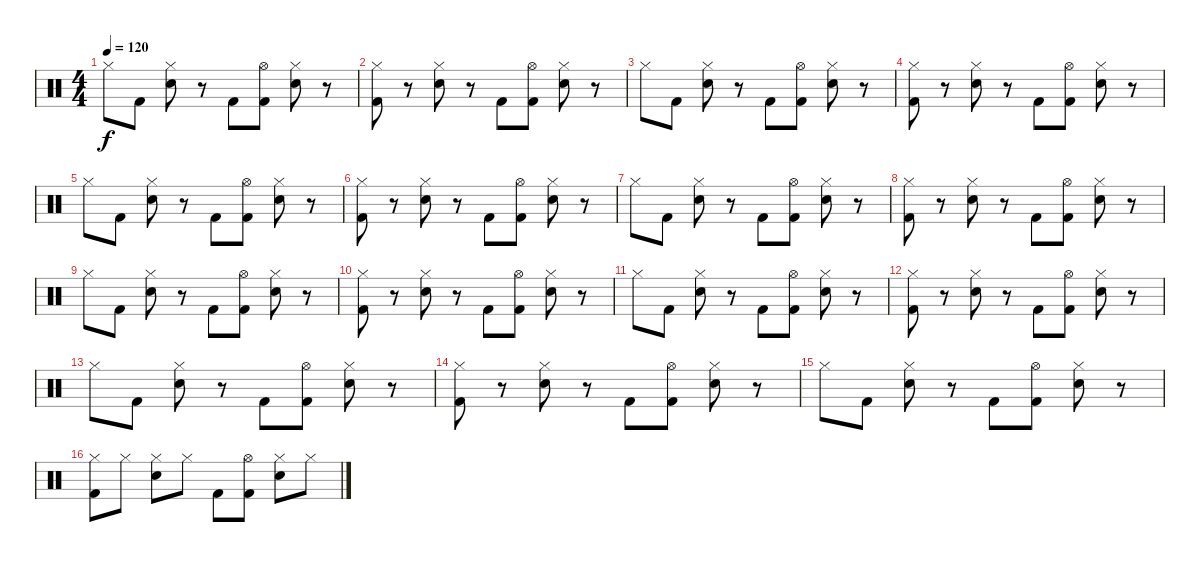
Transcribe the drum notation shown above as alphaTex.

\track "" {instrument percussion}
\staff {score}
\articulation defaults
\ts (4 4)
\tempo 120
\clef neutral
\ks c "Hi-Hat (closed)".8{dy f} "Kick (hit) 2".8
("Hi-Hat (closed)" "Snare (hit) 2").8 r.8 "Kick (hit) 2".8 ("Hi-Hat (open)" "Kick (hit) 2").8 ("Hi-Hat (closed)" "Snare (hit) 2").8 r.8 |
("Hi-Hat (closed)" "Kick (hit) 2").8 r.8 ("Hi-Hat (closed)" "Snare (hit) 2").8 r.8 "Kick (hit) 2".8 ("Hi-Hat (open)" "Kick (hit) 2").8 ("Hi-Hat (closed)" "Snare (hit) 2").8 r.8 |
"Hi-Hat (closed)".8 "Kick (hit) 2".8 ("Hi-Hat (closed)" "Snare (hit) 2").8 r.8 "Kick (hit) 2".8 ("Hi-Hat (open)" "Kick (hit) 2").8 ("Hi-Hat (closed)" "Snare (hit) 2").8 r.8 |
("Hi-Hat (closed)" "Kick (hit) 2").8 r.8 ("Hi-Hat (closed)" "Snare (hit) 2").8 r.8 "Kick (hit) 2".8 ("Hi-Hat (open)" "Kick (hit) 2").8 ("Hi-Hat (closed)" "Snare (hit) 2").8 r.8 |
"Hi-Hat (closed)".8 "Kick (hit) 2".8 ("Hi-Hat (closed)" "Snare (hit) 2").8 r.8 "Kick (hit) 2".8 ("Hi-Hat (open)" "Kick (hit) 2").8 ("Hi-Hat (closed)" "Snare (hit) 2").8 r.8 |
("Hi-Hat (closed)" "Kick (hit) 2").8 r.8 ("Hi-Hat (closed)" "Snare (hit) 2").8 r.8 "Kick (hit) 2".8 ("Hi-Hat (open)" "Kick (hit) 2").8 ("Hi-Hat (closed)" "Snare (hit) 2").8 r.8 |
"Hi-Hat (closed)".8 "Kick (hit) 2".8 ("Hi-Hat (closed)" "Snare (hit) 2").8 r.8 "Kick (hit) 2".8 ("Hi-Hat (open)" "Kick (hit) 2").8 ("Hi-Hat (closed)" "Snare (hit) 2").8 r.8 |
("Hi-Hat (closed)" "Kick (hit) 2").8 r.8 ("Hi-Hat (closed)" "Snare (hit) 2").8 r.8 "Kick (hit) 2".8 ("Hi-Hat (open)" "Kick (hit) 2").8 ("Hi-Hat (closed)" "Snare (hit) 2").8 r.8 |
"Hi-Hat (closed)".8 "Kick (hit) 2".8 ("Hi-Hat (closed)" "Snare (hit) 2").8 r.8 "Kick (hit) 2".8 ("Hi-Hat (open)" "Kick (hit) 2").8 ("Hi-Hat (closed)" "Snare (hit) 2").8 r.8 |
("Hi-Hat (closed)" "Kick (hit) 2").8 r.8 ("Hi-Hat (closed)" "Snare (hit) 2").8 r.8 "Kick (hit) 2".8 ("Hi-Hat (open)" "Kick (hit) 2").8 ("Hi-Hat (closed)" "Snare (hit) 2").8 r.8 |
"Hi-Hat (closed)".8 "Kick (hit) 2".8 ("Hi-Hat (closed)" "Snare (hit) 2").8 r.8 "Kick (hit) 2".8 ("Hi-Hat (open)" "Kick (hit) 2").8 ("Hi-Hat (closed)" "Snare (hit) 2").8 r.8 |
("Hi-Hat (closed)" "Kick (hit) 2").8 r.8 ("Hi-Hat (closed)" "Snare (hit) 2").8 r.8 "Kick (hit) 2".8 ("Hi-Hat (open)" "Kick (hit) 2").8 ("Hi-Hat (closed)" "Snare (hit) 2").8 r.8 |
"Hi-Hat (closed)".8 "Kick (hit) 2".8 ("Hi-Hat (closed)" "Snare (hit) 2").8 r.8 "Kick (hit) 2".8 ("Hi-Hat (open)" "Kick (hit) 2").8 ("Hi-Hat (closed)" "Snare (hit) 2").8 r.8 |
("Hi-Hat (closed)" "Kick (hit) 2").8 r.8 ("Hi-Hat (closed)" "Snare (hit) 2").8 r.8 "Kick (hit) 2".8 ("Hi-Hat (open)" "Kick (hit) 2").8 ("Hi-Hat (closed)" "Snare (hit) 2").8 r.8 |
"Hi-Hat (closed)".8 "Kick (hit) 2".8 ("Hi-Hat (closed)" "Snare (hit) 2").8 r.8 "Kick (hit) 2".8 ("Hi-Hat (open)" "Kick (hit) 2").8 ("Hi-Hat (closed)" "Snare (hit) 2").8 r.8 |
("Hi-Hat (closed)" "Kick (hit) 2").8 "Hi-Hat (closed)".8 ("Hi-Hat (closed)" "Snare (hit) 2").8 "Hi-Hat (closed)".8 "Kick (hit) 2".8 ("Hi-Hat (open)" "Kick (hit) 2").8 ("Hi-Hat (closed)" "Snare (hit) 2").8 "Hi-Hat (closed)".8
